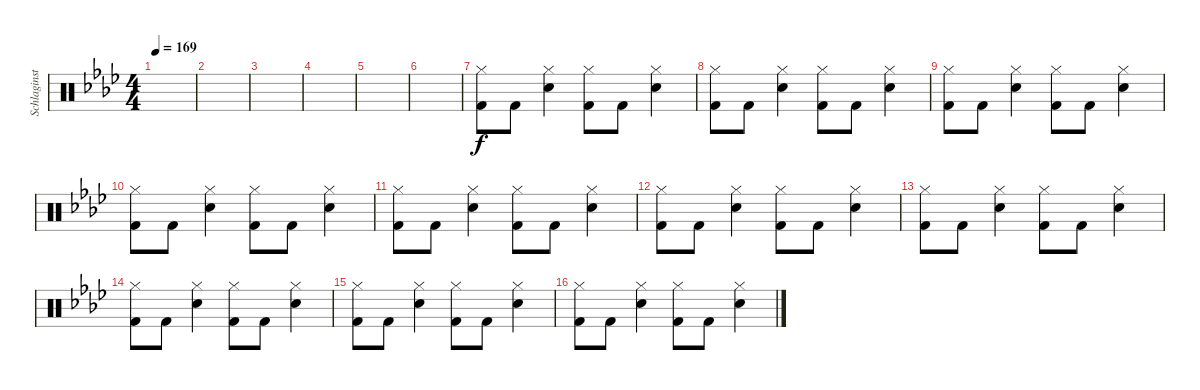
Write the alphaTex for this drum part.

\track ("Schlaginstrumente - Auswahl" "Schlaginst") {instrument percussion}
\staff {score}
\articulation defaults
\ts (4 4)
\tempo 169
\clef neutral
\ks fminor
|
|
|
|
|
|
("Hi-Hat (closed)" "Kick (hit) 2").8 "Kick (hit) 2".8 ("Hi-Hat (closed)" "Electric Snare (hit)").4 ("Hi-Hat (closed)" "Kick (hit) 2").8 "Kick (hit) 2".8 ("Hi-Hat (closed)" "Electric Snare (hit)").4 |
("Hi-Hat (closed)" "Kick (hit) 2").8 "Kick (hit) 2".8 ("Hi-Hat (closed)" "Electric Snare (hit)").4 ("Hi-Hat (closed)" "Kick (hit) 2").8 "Kick (hit) 2".8 ("Hi-Hat (closed)" "Electric Snare (hit)").4 |
("Hi-Hat (closed)" "Kick (hit) 2").8 "Kick (hit) 2".8 ("Hi-Hat (closed)" "Electric Snare (hit)").4 ("Hi-Hat (closed)" "Kick (hit) 2").8 "Kick (hit) 2".8 ("Hi-Hat (closed)" "Electric Snare (hit)").4 |
("Hi-Hat (closed)" "Kick (hit) 2").8 "Kick (hit) 2".8 ("Hi-Hat (closed)" "Electric Snare (hit)").4 ("Hi-Hat (closed)" "Kick (hit) 2").8 "Kick (hit) 2".8 ("Hi-Hat (closed)" "Electric Snare (hit)").4 |
("Hi-Hat (closed)" "Kick (hit) 2").8 "Kick (hit) 2".8 ("Hi-Hat (closed)" "Electric Snare (hit)").4 ("Hi-Hat (closed)" "Kick (hit) 2").8 "Kick (hit) 2".8 ("Hi-Hat (closed)" "Electric Snare (hit)").4 |
("Hi-Hat (closed)" "Kick (hit) 2").8 "Kick (hit) 2".8 ("Hi-Hat (closed)" "Electric Snare (hit)").4 ("Hi-Hat (closed)" "Kick (hit) 2").8 "Kick (hit) 2".8 ("Hi-Hat (closed)" "Electric Snare (hit)").4 |
("Hi-Hat (closed)" "Kick (hit) 2").8 "Kick (hit) 2".8 ("Hi-Hat (closed)" "Electric Snare (hit)").4 ("Hi-Hat (closed)" "Kick (hit) 2").8 "Kick (hit) 2".8 ("Hi-Hat (closed)" "Electric Snare (hit)").4 |
("Hi-Hat (closed)" "Kick (hit) 2").8 "Kick (hit) 2".8 ("Hi-Hat (closed)" "Electric Snare (hit)").4 ("Hi-Hat (closed)" "Kick (hit) 2").8 "Kick (hit) 2".8 ("Hi-Hat (closed)" "Electric Snare (hit)").4 |
("Hi-Hat (closed)" "Kick (hit) 2").8 "Kick (hit) 2".8 ("Hi-Hat (closed)" "Electric Snare (hit)").4 ("Hi-Hat (closed)" "Kick (hit) 2").8 "Kick (hit) 2".8 ("Hi-Hat (closed)" "Electric Snare (hit)").4 |
("Hi-Hat (closed)" "Kick (hit) 2").8 "Kick (hit) 2".8 ("Hi-Hat (closed)" "Electric Snare (hit)").4 ("Hi-Hat (closed)" "Kick (hit) 2").8 "Kick (hit) 2".8 ("Hi-Hat (closed)" "Electric Snare (hit)").4
